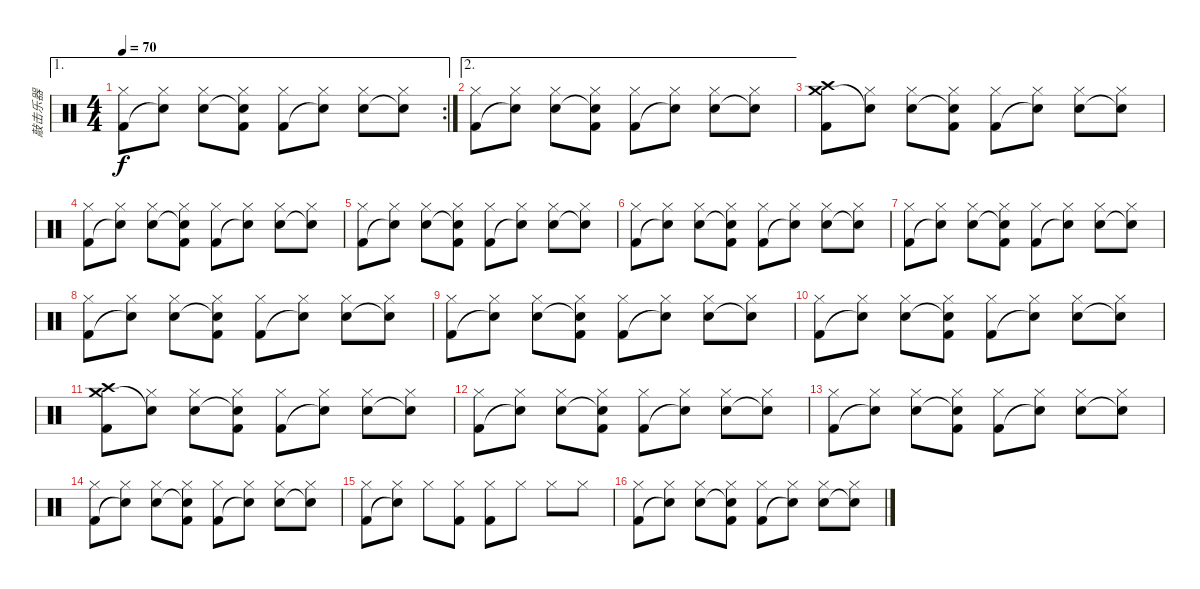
\track ("敲击乐器" "敲击乐器") {instrument percussion}
\staff {score}
\articulation defaults
\ae 1
\rc 2
\ts (4 4)
\tempo 70
\clef neutral
\ks c
("Hi-Hat (closed)" "Kick (hit) 2").8{dy f} ("Hi-Hat (closed)" "Snare (hit)"{t}).8 ("Hi-Hat (closed)" "Snare (hit) 2").8 ("Hi-Hat (closed)" "Snare (hit)"{t} "Kick (hit) 2").8 ("Hi-Hat (closed)" "Kick (hit) 2").8 ("Hi-Hat (closed)" "Snare (hit)"{t}).8 ("Hi-Hat (closed)" "Snare (hit) 2").8 ("Hi-Hat (closed)" "Snare (hit)"{t}).8 |
\ae 2
("Hi-Hat (closed)" "Kick (hit) 2").8 ("Hi-Hat (closed)" "Snare (hit)"{t}).8 ("Hi-Hat (closed)" "Snare (hit) 2").8 ("Hi-Hat (closed)" "Snare (hit)"{t} "Kick (hit) 2").8 ("Hi-Hat (closed)" "Kick (hit) 2").8 ("Hi-Hat (closed)" "Snare (hit)"{t}).8 ("Hi-Hat (closed)" "Snare (hit) 2").8 ("Hi-Hat (closed)" "Snare (hit)"{t}).8 |
("Crash high (hit)" "Crash medium (hit)" "Kick (hit) 2").8 ("Hi-Hat (closed)" "Snare (hit)"{t}).8 ("Hi-Hat (closed)" "Snare (hit) 2").8 ("Hi-Hat (closed)" "Snare (hit)"{t} "Kick (hit) 2").8 ("Hi-Hat (closed)" "Kick (hit) 2").8 ("Hi-Hat (closed)" "Snare (hit)"{t}).8 ("Hi-Hat (closed)" "Snare (hit) 2").8 ("Hi-Hat (closed)" "Snare (hit)"{t}).8 |
("Hi-Hat (closed)" "Kick (hit) 2").8 ("Hi-Hat (closed)" "Snare (hit)"{t}).8 ("Hi-Hat (closed)" "Snare (hit) 2").8 ("Hi-Hat (closed)" "Snare (hit)"{t} "Kick (hit) 2").8 ("Hi-Hat (closed)" "Kick (hit) 2").8 ("Hi-Hat (closed)" "Snare (hit)"{t}).8 ("Hi-Hat (closed)" "Snare (hit) 2").8 ("Hi-Hat (closed)" "Snare (hit)"{t}).8 |
("Hi-Hat (closed)" "Kick (hit) 2").8 ("Hi-Hat (closed)" "Snare (hit)"{t}).8 ("Hi-Hat (closed)" "Snare (hit) 2").8 ("Hi-Hat (closed)" "Snare (hit)"{t} "Kick (hit) 2").8 ("Hi-Hat (closed)" "Kick (hit) 2").8 ("Hi-Hat (closed)" "Snare (hit)"{t}).8 ("Hi-Hat (closed)" "Snare (hit) 2").8 ("Hi-Hat (closed)" "Snare (hit)"{t}).8 |
("Hi-Hat (closed)" "Kick (hit) 2").8 ("Hi-Hat (closed)" "Snare (hit)"{t}).8 ("Hi-Hat (closed)" "Snare (hit) 2").8 ("Hi-Hat (closed)" "Snare (hit)"{t} "Kick (hit) 2").8 ("Hi-Hat (closed)" "Kick (hit) 2").8 ("Hi-Hat (closed)" "Snare (hit)"{t}).8 ("Hi-Hat (closed)" "Snare (hit) 2").8 ("Hi-Hat (closed)" "Snare (hit)"{t}).8 |
("Hi-Hat (closed)" "Kick (hit) 2").8 ("Hi-Hat (closed)" "Snare (hit)"{t}).8 ("Hi-Hat (closed)" "Snare (hit) 2").8 ("Hi-Hat (closed)" "Snare (hit)"{t} "Kick (hit) 2").8 ("Hi-Hat (closed)" "Kick (hit) 2").8 ("Hi-Hat (closed)" "Snare (hit)"{t}).8 ("Hi-Hat (closed)" "Snare (hit) 2").8 ("Hi-Hat (closed)" "Snare (hit)"{t}).8 |
("Hi-Hat (closed)" "Kick (hit) 2").8 ("Hi-Hat (closed)" "Snare (hit)"{t}).8 ("Hi-Hat (closed)" "Snare (hit) 2").8 ("Hi-Hat (closed)" "Snare (hit)"{t} "Kick (hit) 2").8 ("Hi-Hat (closed)" "Kick (hit) 2").8 ("Hi-Hat (closed)" "Snare (hit)"{t}).8 ("Hi-Hat (closed)" "Snare (hit) 2").8 ("Hi-Hat (closed)" "Snare (hit)"{t}).8 |
("Hi-Hat (closed)" "Kick (hit) 2").8 ("Hi-Hat (closed)" "Snare (hit)"{t}).8 ("Hi-Hat (closed)" "Snare (hit) 2").8 ("Hi-Hat (closed)" "Snare (hit)"{t} "Kick (hit) 2").8 ("Hi-Hat (closed)" "Kick (hit) 2").8 ("Hi-Hat (closed)" "Snare (hit)"{t}).8 ("Hi-Hat (closed)" "Snare (hit) 2").8 ("Hi-Hat (closed)" "Snare (hit)"{t}).8 |
("Hi-Hat (closed)" "Kick (hit) 2").8 ("Hi-Hat (closed)" "Snare (hit)"{t}).8 ("Hi-Hat (closed)" "Snare (hit) 2").8 ("Hi-Hat (closed)" "Snare (hit)"{t} "Kick (hit) 2").8 ("Hi-Hat (closed)" "Kick (hit) 2").8 ("Hi-Hat (closed)" "Snare (hit)"{t}).8 ("Hi-Hat (closed)" "Snare (hit) 2").8 ("Hi-Hat (closed)" "Snare (hit)"{t}).8 |
("Crash high (hit)" "Crash medium (hit)" "Kick (hit) 2").8 ("Hi-Hat (closed)" "Snare (hit)"{t}).8 ("Hi-Hat (closed)" "Snare (hit) 2").8 ("Hi-Hat (closed)" "Snare (hit)"{t} "Kick (hit) 2").8 ("Hi-Hat (closed)" "Kick (hit) 2").8 ("Hi-Hat (closed)" "Snare (hit)"{t}).8 ("Hi-Hat (closed)" "Snare (hit) 2").8 ("Hi-Hat (closed)" "Snare (hit)"{t}).8 |
("Hi-Hat (closed)" "Kick (hit) 2").8 ("Hi-Hat (closed)" "Snare (hit)"{t}).8 ("Hi-Hat (closed)" "Snare (hit) 2").8 ("Hi-Hat (closed)" "Snare (hit)"{t} "Kick (hit) 2").8 ("Hi-Hat (closed)" "Kick (hit) 2").8 ("Hi-Hat (closed)" "Snare (hit)"{t}).8 ("Hi-Hat (closed)" "Snare (hit) 2").8 ("Hi-Hat (closed)" "Snare (hit)"{t}).8 |
("Hi-Hat (closed)" "Kick (hit) 2").8 ("Hi-Hat (closed)" "Snare (hit)"{t}).8 ("Hi-Hat (closed)" "Snare (hit) 2").8 ("Hi-Hat (closed)" "Snare (hit)"{t} "Kick (hit) 2").8 ("Hi-Hat (closed)" "Kick (hit) 2").8 ("Hi-Hat (closed)" "Snare (hit)"{t}).8 ("Hi-Hat (closed)" "Snare (hit) 2").8 ("Hi-Hat (closed)" "Snare (hit)"{t}).8 |
("Hi-Hat (closed)" "Kick (hit) 2").8 ("Hi-Hat (closed)" "Snare (hit)"{t}).8 ("Hi-Hat (closed)" "Snare (hit) 2").8 ("Hi-Hat (closed)" "Snare (hit)"{t} "Kick (hit) 2").8 ("Hi-Hat (closed)" "Kick (hit) 2").8 ("Hi-Hat (closed)" "Snare (hit)"{t}).8 ("Hi-Hat (closed)" "Snare (hit) 2").8 ("Hi-Hat (closed)" "Snare (hit)"{t}).8 |
("Hi-Hat (closed)" "Kick (hit) 2").8 ("Hi-Hat (closed)" "Snare (hit)"{t}).8 "Hi-Hat (closed)".8 ("Hi-Hat (closed)" "Kick (hit) 2").8 ("Hi-Hat (closed)" "Kick (hit) 2").8 "Hi-Hat (closed)".8 "Hi-Hat (closed)".8 "Hi-Hat (closed)".8 |
("Hi-Hat (closed)" "Kick (hit) 2").8 ("Hi-Hat (closed)" "Snare (hit)"{t}).8 ("Hi-Hat (closed)" "Snare (hit) 2").8 ("Hi-Hat (closed)" "Snare (hit)"{t} "Kick (hit) 2").8 ("Hi-Hat (closed)" "Kick (hit) 2").8 ("Hi-Hat (closed)" "Snare (hit)"{t}).8 ("Hi-Hat (closed)" "Snare (hit) 2").8 ("Hi-Hat (closed)" "Snare (hit)"{t}).8
